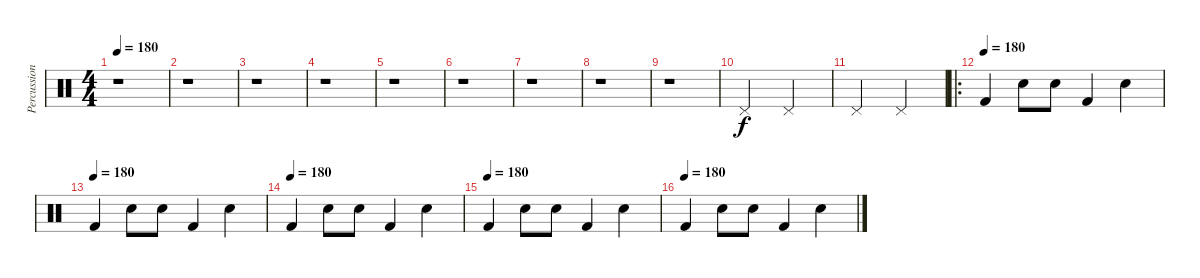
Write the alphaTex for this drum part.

\track ("Percussions" "Percussion") {instrument percussion}
\staff {score}
\articulation defaults
\ts (4 4)
\tempo 180
\clef neutral
\ks c
r.1{dy f} |
r.1 |
r.1 |
r.1 |
r.1 |
r.1 |
r.1 |
r.1 |
r.1 |
"Pedal Hi-Hat (hit)".2 "Pedal Hi-Hat (hit)".2 |
"Pedal Hi-Hat (hit)".2 "Pedal Hi-Hat (hit)".2 |
\ro
\tempo (180)
"Kick (hit) 2".4 "Hand Clap (hit)".8 "Hand Clap (hit)".8 "Kick (hit) 2".4 "Hand Clap (hit)".4 |
\tempo (180)
"Kick (hit) 2".4 "Hand Clap (hit)".8 "Hand Clap (hit)".8 "Kick (hit) 2".4 "Hand Clap (hit)".4 |
\tempo (180)
"Kick (hit) 2".4 "Hand Clap (hit)".8 "Hand Clap (hit)".8 "Kick (hit) 2".4 "Hand Clap (hit)".4 |
\tempo (180)
"Kick (hit) 2".4 "Hand Clap (hit)".8 "Hand Clap (hit)".8 "Kick (hit) 2".4 "Hand Clap (hit)".4 |
\tempo (180)
"Kick (hit) 2".4 "Hand Clap (hit)".8 "Hand Clap (hit)".8 "Kick (hit) 2".4 "Hand Clap (hit)".4
